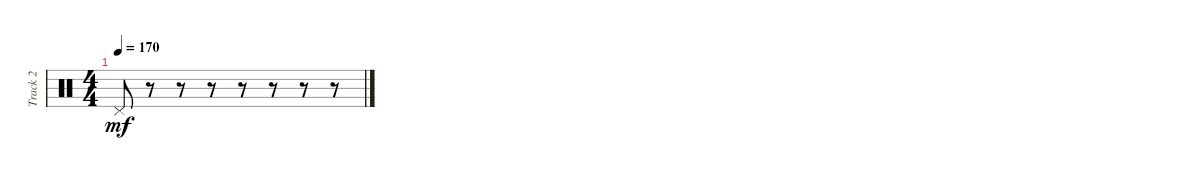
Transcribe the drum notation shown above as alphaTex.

\track ("Track 2" "Track 2") {instrument percussion}
\staff {score}
\articulation defaults
\ts (4 4)
\tempo 170
\clef neutral
\ks c "Pedal Hi-Hat (hit)".8{dy mf}
r.8 r.8 r.8 r.8 r.8 r.8 r.8
